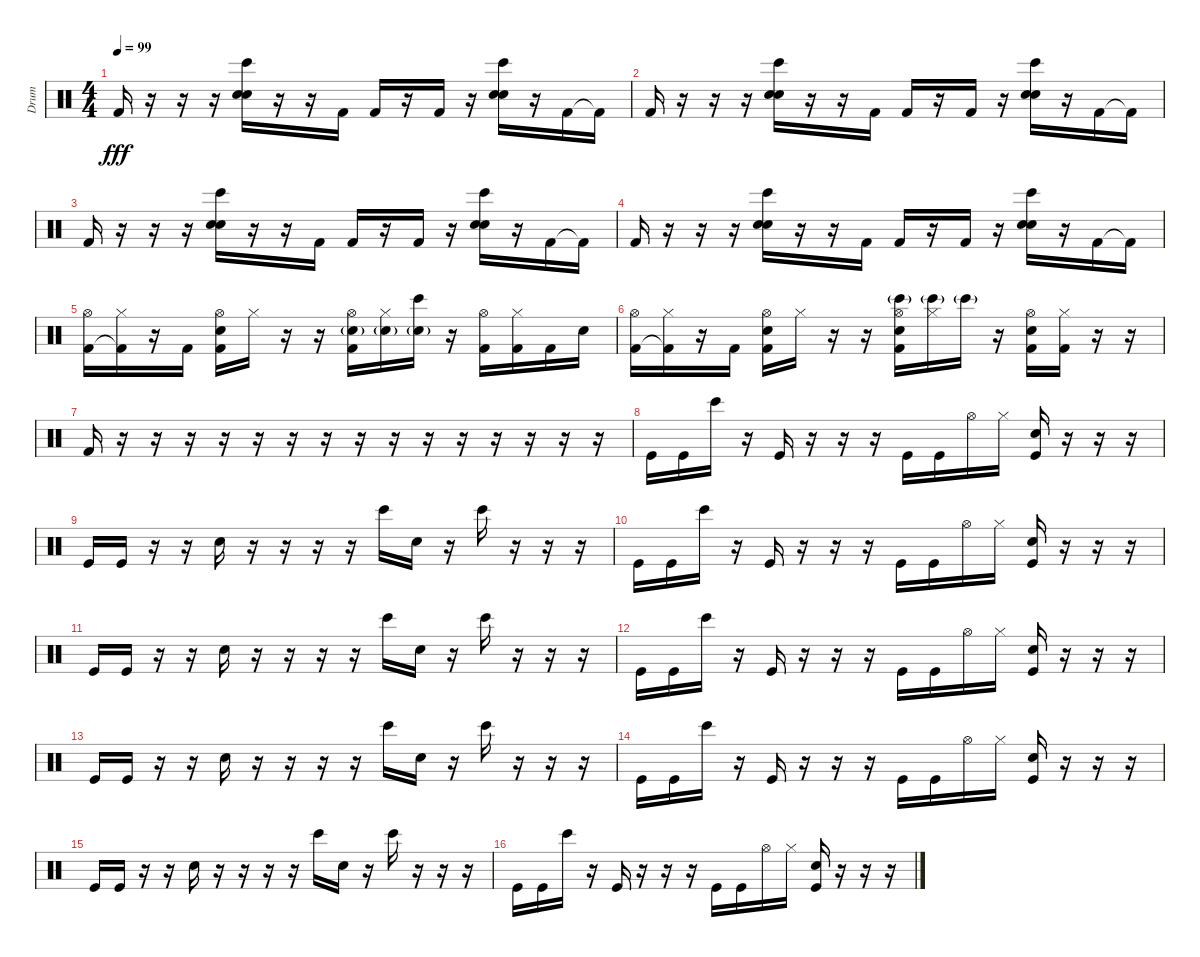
\track ("Drum" "Drum") {instrument percussion}
\staff {score}
\articulation defaults
\ts (4 4)
\tempo 99
\clef neutral
\ks c "Kick (hit) 2".16{dy fff}
r.16 r.16 r.16 ("Snare (hit) 2" "Hand Clap (hit)" "Bongo High (hit)").16 r.16 r.16 "Kick (hit) 2".16 "Kick (hit) 2".16 r.16 "Kick (hit) 2".16 r.16 ("Snare (hit) 2" "Hand Clap (hit)" "Bongo High (hit)").16 r.16 "Kick (hit) 2".16 "Kick (hit) 2"{t}.16 |
"Kick (hit) 2".16 r.16 r.16 r.16 ("Snare (hit) 2" "Hand Clap (hit)" "Bongo High (hit)").16 r.16 r.16 "Kick (hit) 2".16 "Kick (hit) 2".16 r.16 "Kick (hit) 2".16 r.16 ("Snare (hit) 2" "Hand Clap (hit)" "Bongo High (hit)").16 r.16 "Kick (hit) 2".16 "Kick (hit) 2"{t}.16 |
"Kick (hit) 2".16 r.16 r.16 r.16 ("Snare (hit) 2" "Hand Clap (hit)" "Bongo High (hit)").16 r.16 r.16 "Kick (hit) 2".16 "Kick (hit) 2".16 r.16 "Kick (hit) 2".16 r.16 ("Snare (hit) 2" "Hand Clap (hit)" "Bongo High (hit)").16 r.16 "Kick (hit) 2".16 "Kick (hit) 2"{t}.16 |
"Kick (hit) 2".16 r.16 r.16 r.16 ("Snare (hit) 2" "Hand Clap (hit)" "Bongo High (hit)").16 r.16 r.16 "Kick (hit) 2".16 "Kick (hit) 2".16 r.16 "Kick (hit) 2".16 r.16 ("Snare (hit) 2" "Hand Clap (hit)" "Bongo High (hit)").16 r.16 "Kick (hit) 2".16 "Kick (hit) 2"{t}.16 |
("Hi-Hat (open)" "Kick (hit) 2").16 ("Hi-Hat (closed)" "Kick (hit) 2"{t}).16 r.16 "Kick (hit) 2".16 ("Hi-Hat (open)" "Hand Clap (hit)" "Kick (hit) 2").16 "Hi-Hat (closed)".16 r.16 r.16 ("Hi-Hat (open)" "Hand Clap (hit)"{g} "Kick (hit) 2").16 ("Hi-Hat (closed)" "Hand Clap (hit)"{g}).16 ("Hand Clap (hit)"{g} "Bongo High (hit)").16 r.16 ("Hi-Hat (open)" "Kick (hit) 2").16 ("Hi-Hat (closed)" "Kick (hit) 2").16 "Kick (hit) 2".16 "Hand Clap (hit)".16 |
("Hi-Hat (open)" "Kick (hit) 2").16 ("Hi-Hat (closed)" "Kick (hit) 2"{t}).16 r.16 "Kick (hit) 2".16 ("Hi-Hat (open)" "Hand Clap (hit)" "Kick (hit) 2").16 "Hi-Hat (closed)".16 r.16 r.16 ("Hi-Hat (open)" "Bongo High (hit)"{g} "Hand Clap (hit)" "Kick (hit) 2").16 ("Hi-Hat (closed)" "Bongo High (hit)"{g}).16 "Bongo High (hit)"{g}.16 r.16 ("Hi-Hat (open)" "Hand Clap (hit)" "Kick (hit) 2").16 ("Hi-Hat (closed)" "Kick (hit) 2").16 r.16 r.16 |
"Kick (hit) 2".16 r.16 r.16 r.16 r.16 r.16 r.16 r.16 r.16 r.16 r.16 r.16 r.16 r.16 r.16 r.16 |
"Kick (hit)".16 "Kick (hit)".16 "Bongo High (hit)".16 r.16 "Kick (hit)".16 r.16 r.16 r.16 "Kick (hit)".16 "Kick (hit)".16 "Hi-Hat (open)".16 "Hi-Hat (closed)".16 ("Hand Clap (hit)" "Kick (hit)").16 r.16 r.16 r.16 |
"Kick (hit)".16 "Kick (hit)".16 r.16 r.16 "Hand Clap (hit)".16 r.16 r.16 r.16 r.16 "Bongo High (hit)".16 "Hand Clap (hit)".16 r.16 "Bongo High (hit)".16 r.16 r.16 r.16 |
"Kick (hit)".16 "Kick (hit)".16 "Bongo High (hit)".16 r.16 "Kick (hit)".16 r.16 r.16 r.16 "Kick (hit)".16 "Kick (hit)".16 "Hi-Hat (open)".16 "Hi-Hat (closed)".16 ("Hand Clap (hit)" "Kick (hit)").16 r.16 r.16 r.16 |
"Kick (hit)".16 "Kick (hit)".16 r.16 r.16 "Hand Clap (hit)".16 r.16 r.16 r.16 r.16 "Bongo High (hit)".16 "Hand Clap (hit)".16 r.16 "Bongo High (hit)".16 r.16 r.16 r.16 |
"Kick (hit)".16 "Kick (hit)".16 "Bongo High (hit)".16 r.16 "Kick (hit)".16 r.16 r.16 r.16 "Kick (hit)".16 "Kick (hit)".16 "Hi-Hat (open)".16 "Hi-Hat (closed)".16 ("Hand Clap (hit)" "Kick (hit)").16 r.16 r.16 r.16 |
"Kick (hit)".16 "Kick (hit)".16 r.16 r.16 "Hand Clap (hit)".16 r.16 r.16 r.16 r.16 "Bongo High (hit)".16 "Hand Clap (hit)".16 r.16 "Bongo High (hit)".16 r.16 r.16 r.16 |
"Kick (hit)".16 "Kick (hit)".16 "Bongo High (hit)".16 r.16 "Kick (hit)".16 r.16 r.16 r.16 "Kick (hit)".16 "Kick (hit)".16 "Hi-Hat (open)".16 "Hi-Hat (closed)".16 ("Hand Clap (hit)" "Kick (hit)").16 r.16 r.16 r.16 |
"Kick (hit)".16 "Kick (hit)".16 r.16 r.16 "Hand Clap (hit)".16 r.16 r.16 r.16 r.16 "Bongo High (hit)".16 "Hand Clap (hit)".16 r.16 "Bongo High (hit)".16 r.16 r.16 r.16 |
"Kick (hit)".16 "Kick (hit)".16 "Bongo High (hit)".16 r.16 "Kick (hit)".16 r.16 r.16 r.16 "Kick (hit)".16 "Kick (hit)".16 "Hi-Hat (open)".16 "Hi-Hat (closed)".16 ("Hand Clap (hit)" "Kick (hit)").16 r.16 r.16 r.16
